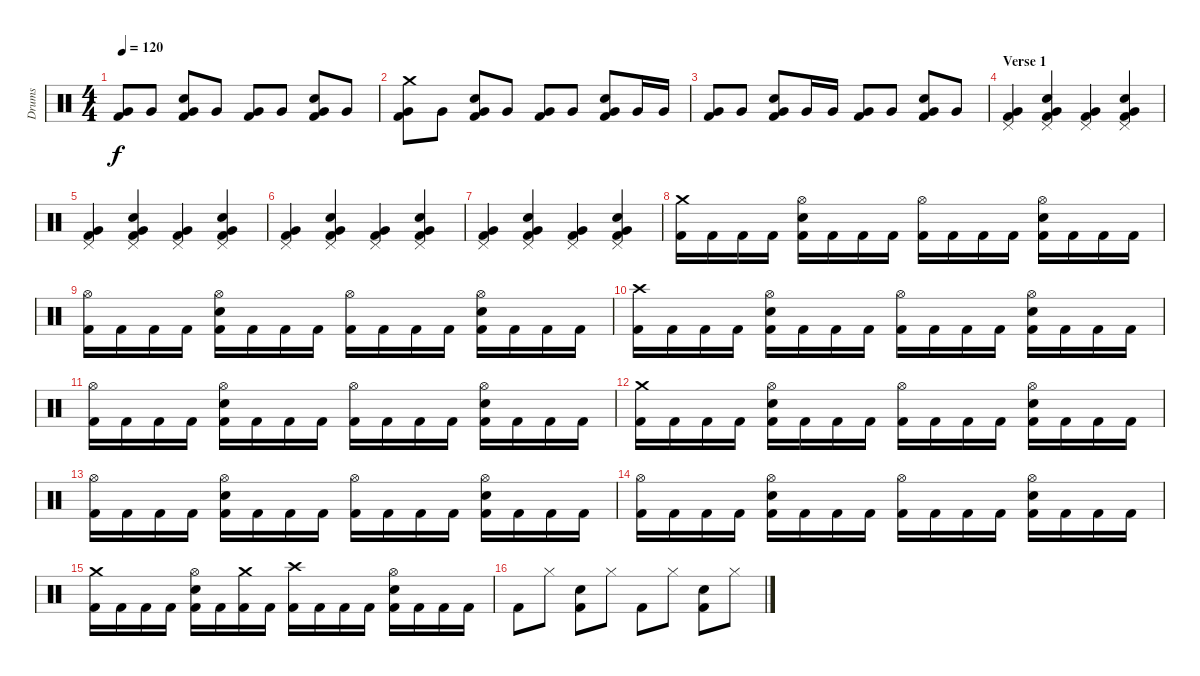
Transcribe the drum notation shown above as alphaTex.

\track ("Drums" "Drums") {instrument percussion}
\staff {score}
\articulation defaults
\ts (4 4)
\tempo 120
\clef neutral
\ks c
("Very Low Tom (hit)" "Kick (hit) 2").8{dy f} "Very Low Tom (hit)".8 ("Very Low Tom (hit)" "Snare (hit) 2" "Kick (hit) 2").8 "Very Low Tom (hit)".8 ("Very Low Tom (hit)" "Kick (hit) 2").8 "Very Low Tom (hit)".8 ("Very Low Tom (hit)" "Snare (hit) 2" "Kick (hit) 2").8 "Very Low Tom (hit)".8 |
("Crash medium (hit)" "Very Low Tom (hit)" "Kick (hit) 2").8 "Very Low Tom (hit)".8 ("Very Low Tom (hit)" "Snare (hit) 2" "Kick (hit) 2").8 "Very Low Tom (hit)".8 ("Very Low Tom (hit)" "Kick (hit) 2").8 "Very Low Tom (hit)".8 ("Very Low Tom (hit)" "Snare (hit) 2" "Kick (hit) 2").8 "Very Low Tom (hit)".16 "Very Low Tom (hit)".16 |
("Very Low Tom (hit)" "Kick (hit) 2").8 "Very Low Tom (hit)".8 ("Very Low Tom (hit)" "Snare (hit) 2" "Kick (hit) 2").8 "Very Low Tom (hit)".16 "Very Low Tom (hit)".16 ("Very Low Tom (hit)" "Kick (hit) 2").8 "Very Low Tom (hit)".8 ("Very Low Tom (hit)" "Snare (hit) 2" "Kick (hit) 2").8 "Very Low Tom (hit)".8 |
\section ("" "Verse 1")
("Pedal Hi-Hat (hit)" "Very Low Tom (hit)" "Kick (hit) 2").4 ("Pedal Hi-Hat (hit)" "Very Low Tom (hit)" "Snare (hit) 2" "Kick (hit) 2").4 ("Pedal Hi-Hat (hit)" "Very Low Tom (hit)" "Kick (hit) 2").4 ("Pedal Hi-Hat (hit)" "Very Low Tom (hit)" "Snare (hit) 2" "Kick (hit) 2").4 |
("Pedal Hi-Hat (hit)" "Very Low Tom (hit)" "Kick (hit) 2").4 ("Pedal Hi-Hat (hit)" "Very Low Tom (hit)" "Snare (hit) 2" "Kick (hit) 2").4 ("Pedal Hi-Hat (hit)" "Very Low Tom (hit)" "Kick (hit) 2").4 ("Pedal Hi-Hat (hit)" "Very Low Tom (hit)" "Snare (hit) 2" "Kick (hit) 2").4 |
("Pedal Hi-Hat (hit)" "Very Low Tom (hit)" "Kick (hit) 2").4 ("Pedal Hi-Hat (hit)" "Very Low Tom (hit)" "Snare (hit) 2" "Kick (hit) 2").4 ("Pedal Hi-Hat (hit)" "Very Low Tom (hit)" "Kick (hit) 2").4 ("Pedal Hi-Hat (hit)" "Very Low Tom (hit)" "Snare (hit) 2" "Kick (hit) 2").4 |
("Pedal Hi-Hat (hit)" "Very Low Tom (hit)" "Kick (hit) 2").4 ("Pedal Hi-Hat (hit)" "Very Low Tom (hit)" "Snare (hit) 2" "Kick (hit) 2").4 ("Pedal Hi-Hat (hit)" "Very Low Tom (hit)" "Kick (hit) 2").4 ("Pedal Hi-Hat (hit)" "Very Low Tom (hit)" "Snare (hit) 2" "Kick (hit) 2").4 |
("Crash medium (hit)" "Kick (hit) 2").16 "Kick (hit) 2".16 "Kick (hit) 2".16 "Kick (hit) 2".16 ("Hi-Hat (open)" "Snare (hit) 2" "Kick (hit) 2").16 "Kick (hit) 2".16 "Kick (hit) 2".16 "Kick (hit) 2".16 ("Hi-Hat (open)" "Kick (hit) 2").16 "Kick (hit) 2".16 "Kick (hit) 2".16 "Kick (hit) 2".16 ("Hi-Hat (open)" "Snare (hit) 2" "Kick (hit) 2").16 "Kick (hit) 2".16 "Kick (hit) 2".16 "Kick (hit) 2".16 |
("Hi-Hat (open)" "Kick (hit) 2").16 "Kick (hit) 2".16 "Kick (hit) 2".16 "Kick (hit) 2".16 ("Hi-Hat (open)" "Snare (hit) 2" "Kick (hit) 2").16 "Kick (hit) 2".16 "Kick (hit) 2".16 "Kick (hit) 2".16 ("Hi-Hat (open)" "Kick (hit) 2").16 "Kick (hit) 2".16 "Kick (hit) 2".16 "Kick (hit) 2".16 ("Hi-Hat (open)" "Snare (hit) 2" "Kick (hit) 2").16 "Kick (hit) 2".16 "Kick (hit) 2".16 "Kick (hit) 2".16 |
("Crash high (hit)" "Kick (hit) 2").16 "Kick (hit) 2".16 "Kick (hit) 2".16 "Kick (hit) 2".16 ("Hi-Hat (open)" "Snare (hit) 2" "Kick (hit) 2").16 "Kick (hit) 2".16 "Kick (hit) 2".16 "Kick (hit) 2".16 ("Hi-Hat (open)" "Kick (hit) 2").16 "Kick (hit) 2".16 "Kick (hit) 2".16 "Kick (hit) 2".16 ("Hi-Hat (open)" "Snare (hit) 2" "Kick (hit) 2").16 "Kick (hit) 2".16 "Kick (hit) 2".16 "Kick (hit) 2".16 |
("Hi-Hat (open)" "Kick (hit) 2").16 "Kick (hit) 2".16 "Kick (hit) 2".16 "Kick (hit) 2".16 ("Hi-Hat (open)" "Snare (hit) 2" "Kick (hit) 2").16 "Kick (hit) 2".16 "Kick (hit) 2".16 "Kick (hit) 2".16 ("Hi-Hat (open)" "Kick (hit) 2").16 "Kick (hit) 2".16 "Kick (hit) 2".16 "Kick (hit) 2".16 ("Hi-Hat (open)" "Snare (hit) 2" "Kick (hit) 2").16 "Kick (hit) 2".16 "Kick (hit) 2".16 "Kick (hit) 2".16 |
("Crash medium (hit)" "Kick (hit) 2").16 "Kick (hit) 2".16 "Kick (hit) 2".16 "Kick (hit) 2".16 ("Hi-Hat (open)" "Snare (hit) 2" "Kick (hit) 2").16 "Kick (hit) 2".16 "Kick (hit) 2".16 "Kick (hit) 2".16 ("Hi-Hat (open)" "Kick (hit) 2").16 "Kick (hit) 2".16 "Kick (hit) 2".16 "Kick (hit) 2".16 ("Hi-Hat (open)" "Snare (hit) 2" "Kick (hit) 2").16 "Kick (hit) 2".16 "Kick (hit) 2".16 "Kick (hit) 2".16 |
("Hi-Hat (open)" "Kick (hit) 2").16 "Kick (hit) 2".16 "Kick (hit) 2".16 "Kick (hit) 2".16 ("Hi-Hat (open)" "Snare (hit) 2" "Kick (hit) 2").16 "Kick (hit) 2".16 "Kick (hit) 2".16 "Kick (hit) 2".16 ("Hi-Hat (open)" "Kick (hit) 2").16 "Kick (hit) 2".16 "Kick (hit) 2".16 "Kick (hit) 2".16 ("Hi-Hat (open)" "Snare (hit) 2" "Kick (hit) 2").16 "Kick (hit) 2".16 "Kick (hit) 2".16 "Kick (hit) 2".16 |
("Hi-Hat (open)" "Kick (hit) 2").16 "Kick (hit) 2".16 "Kick (hit) 2".16 "Kick (hit) 2".16 ("Hi-Hat (open)" "Snare (hit) 2" "Kick (hit) 2").16 "Kick (hit) 2".16 "Kick (hit) 2".16 "Kick (hit) 2".16 ("Hi-Hat (open)" "Kick (hit) 2").16 "Kick (hit) 2".16 "Kick (hit) 2".16 "Kick (hit) 2".16 ("Hi-Hat (open)" "Snare (hit) 2" "Kick (hit) 2").16 "Kick (hit) 2".16 "Kick (hit) 2".16 "Kick (hit) 2".16 |
("Crash medium (hit)" "Kick (hit) 2").16 "Kick (hit) 2".16 "Kick (hit) 2".16 "Kick (hit) 2".16 ("Hi-Hat (open)" "Snare (hit) 2" "Kick (hit) 2").16 "Kick (hit) 2".16 ("Crash medium (hit)" "Kick (hit) 2").16 "Kick (hit) 2".16 ("Crash high (hit)" "Kick (hit) 2").16 "Kick (hit) 2".16 "Kick (hit) 2".16 "Kick (hit) 2".16 ("Hi-Hat (open)" "Snare (hit) 2" "Kick (hit) 2").16 "Kick (hit) 2".16 "Kick (hit) 2".16 "Kick (hit) 2".16 |
"Kick (hit) 2".8 "Hi-Hat (closed)".8 ("Snare (hit) 2" "Kick (hit) 2").8 "Hi-Hat (closed)".8 "Kick (hit) 2".8 "Hi-Hat (closed)".8 ("Snare (hit) 2" "Kick (hit) 2").8 "Hi-Hat (closed)".8
